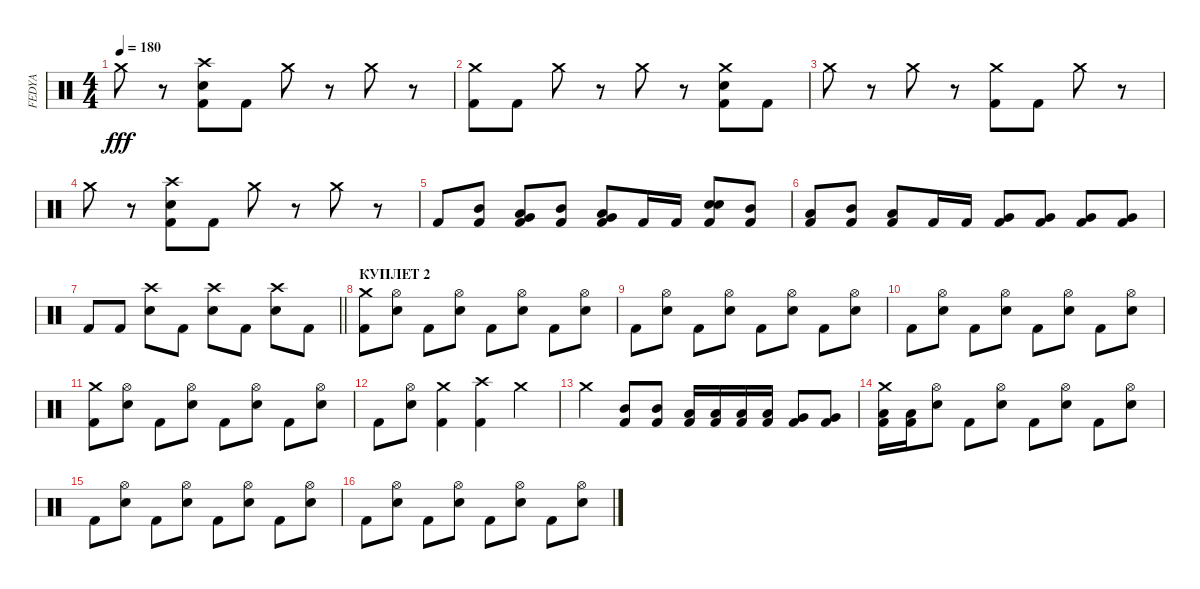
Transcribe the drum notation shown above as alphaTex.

\track ("FEDYA" "FEDYA") {instrument percussion}
\staff {score}
\articulation defaults
\ts (4 4)
\tempo 180
\clef neutral
\ks c "Crash medium (hit)".8{dy fff}
r.8 ("Crash high (hit)" "Snare (hit) 2" "Kick (hit) 2").8 "Kick (hit) 2".8 "Crash medium (hit)".8 r.8 "Crash medium (hit)".8 r.8 |
("Crash medium (hit)" "Kick (hit) 2").8 "Kick (hit) 2".8 "Crash medium (hit)".8 r.8 "Crash medium (hit)".8 r.8 ("Crash medium (hit)" "Snare (hit) 2" "Kick (hit) 2").8 "Kick (hit) 2".8 |
"Crash medium (hit)".8 r.8 "Crash medium (hit)".8 r.8 ("Crash medium (hit)" "Kick (hit) 2").8 "Kick (hit) 2".8 "Crash medium (hit)".8 r.8 |
"Crash medium (hit)".8 r.8 ("Crash high (hit)" "Snare (hit) 2" "Kick (hit) 2").8 "Kick (hit) 2".8 "Crash medium (hit)".8 r.8 "Crash medium (hit)".8 r.8 |
"Kick (hit) 2".8 ("Mid Tom (hit)" "Kick (hit) 2").8 ("Very Low Tom (hit)" "Low Tom (hit)" "Kick (hit) 2").8 ("Mid Tom (hit)" "Kick (hit) 2").8 ("Very Low Tom (hit)" "Low Tom (hit)" "Kick (hit) 2").8 "Kick (hit) 2".16 "Kick (hit) 2".16 ("Electric Snare (hit)" "Snare (hit) 2" "Kick (hit) 2").8 ("Mid Tom (hit)" "Kick (hit) 2").8 |
("Low Tom (hit)" "Kick (hit) 2").8 ("Mid Tom (hit)" "Kick (hit) 2").8 ("Low Tom (hit)" "Kick (hit) 2").8 "Kick (hit) 2".16 "Kick (hit) 2".16 ("Very Low Tom (hit)" "Kick (hit) 2").8 ("Very Low Tom (hit)" "Kick (hit) 2").8 ("Very Low Tom (hit)" "Kick (hit) 2").8 ("Very Low Tom (hit)" "Kick (hit) 2").8 |
\barLineRight lightlight "Kick (hit) 2".8 "Kick (hit) 2".8
("Crash high (hit)" "Snare (hit) 2").8 "Kick (hit) 2".8 ("Crash high (hit)" "Snare (hit) 2").8 "Kick (hit) 2".8 ("Crash high (hit)" "Snare (hit) 2").8 "Kick (hit) 2".8 |
\section ("" "КУПЛЕТ 2")
("Crash medium (hit)" "Kick (hit) 2").8 ("Hi-Hat (open)" "Snare (hit) 2").8 "Kick (hit) 2".8 ("Hi-Hat (open)" "Snare (hit) 2").8 "Kick (hit) 2".8 ("Hi-Hat (open)" "Snare (hit) 2").8 "Kick (hit) 2".8 ("Hi-Hat (open)" "Snare (hit) 2").8 |
"Kick (hit) 2".8 ("Hi-Hat (open)" "Snare (hit) 2").8 "Kick (hit) 2".8 ("Hi-Hat (open)" "Snare (hit) 2").8 "Kick (hit) 2".8 ("Hi-Hat (open)" "Snare (hit) 2").8 "Kick (hit) 2".8 ("Hi-Hat (open)" "Snare (hit) 2").8 |
"Kick (hit) 2".8 ("Hi-Hat (open)" "Snare (hit) 2").8 "Kick (hit) 2".8 ("Hi-Hat (open)" "Snare (hit) 2").8 "Kick (hit) 2".8 ("Hi-Hat (open)" "Snare (hit) 2").8 "Kick (hit) 2".8 ("Hi-Hat (open)" "Snare (hit) 2").8 |
("Crash medium (hit)" "Kick (hit) 2").8 ("Hi-Hat (open)" "Snare (hit) 2").8 "Kick (hit) 2".8 ("Hi-Hat (open)" "Snare (hit) 2").8 "Kick (hit) 2".8 ("Hi-Hat (open)" "Snare (hit) 2").8 "Kick (hit) 2".8 ("Hi-Hat (open)" "Snare (hit) 2").8 |
"Kick (hit) 2".8 ("Hi-Hat (open)" "Snare (hit) 2").8 ("Crash medium (hit)" "Kick (hit) 2").4 ("Crash high (hit)" "Kick (hit) 2").4 "Crash medium (hit)".4 |
"Crash medium (hit)".4 ("Mid Tom (hit)" "Kick (hit) 2").8 ("Mid Tom (hit)" "Kick (hit) 2").8 ("Low Tom (hit)" "Kick (hit) 2").16 ("Low Tom (hit)" "Kick (hit) 2").16 ("Low Tom (hit)" "Kick (hit) 2").16 ("Low Tom (hit)" "Kick (hit) 2").16 ("Very Low Tom (hit)" "Kick (hit) 2").8 ("Very Low Tom (hit)" "Kick (hit) 2").8 |
("Crash medium (hit)" "Low Floor Tom (hit)" "Kick (hit) 2").16 ("Low Floor Tom (hit)" "Kick (hit) 2").16 ("Hi-Hat (open)" "Snare (hit) 2").8 "Kick (hit) 2".8 ("Hi-Hat (open)" "Snare (hit) 2").8 "Kick (hit) 2".8 ("Hi-Hat (open)" "Snare (hit) 2").8 "Kick (hit) 2".8 ("Hi-Hat (open)" "Snare (hit) 2").8 |
"Kick (hit) 2".8 ("Hi-Hat (open)" "Snare (hit) 2").8 "Kick (hit) 2".8 ("Hi-Hat (open)" "Snare (hit) 2").8 "Kick (hit) 2".8 ("Hi-Hat (open)" "Snare (hit) 2").8 "Kick (hit) 2".8 ("Hi-Hat (open)" "Snare (hit) 2").8 |
"Kick (hit) 2".8 ("Hi-Hat (open)" "Snare (hit) 2").8 "Kick (hit) 2".8 ("Hi-Hat (open)" "Snare (hit) 2").8 "Kick (hit) 2".8 ("Hi-Hat (open)" "Snare (hit) 2").8 "Kick (hit) 2".8 ("Hi-Hat (open)" "Snare (hit) 2").8
